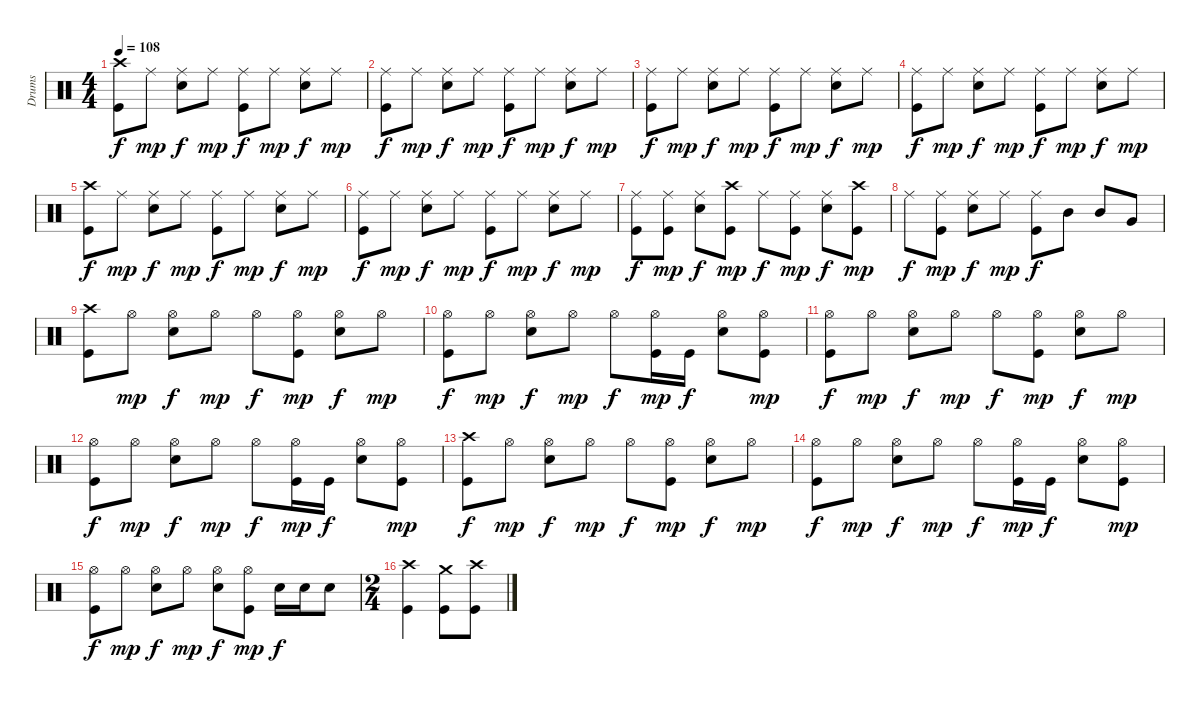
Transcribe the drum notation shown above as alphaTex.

\track ("Drums" "Drums") {instrument percussion}
\staff {score}
\articulation defaults
\ts (4 4)
\tempo 108
\clef neutral
\ks c
("Crash high (hit)" "Kick (hit)").8{dy f} "Ride (middle)".8{dy mp} ("Ride (middle)" "Snare (hit) 2").8{dy f} "Ride (middle)".8{dy mp} ("Ride (middle)" "Kick (hit)").8{dy f} "Ride (middle)".8{dy mp} ("Ride (middle)" "Snare (hit) 2").8{dy f} "Ride (middle)".8{dy mp} |
("Ride (middle)" "Kick (hit)").8{dy f} "Ride (middle)".8{dy mp} ("Ride (middle)" "Snare (hit) 2").8{dy f} "Ride (middle)".8{dy mp} ("Ride (middle)" "Kick (hit)").8{dy f} "Ride (middle)".8{dy mp} ("Ride (middle)" "Snare (hit) 2").8{dy f} "Ride (middle)".8{dy mp} |
("Ride (middle)" "Kick (hit)").8{dy f} "Ride (middle)".8{dy mp} ("Ride (middle)" "Snare (hit) 2").8{dy f} "Ride (middle)".8{dy mp} ("Ride (middle)" "Kick (hit)").8{dy f} "Ride (middle)".8{dy mp} ("Ride (middle)" "Snare (hit) 2").8{dy f} "Ride (middle)".8{dy mp} |
("Ride (middle)" "Kick (hit)").8{dy f} "Ride (middle)".8{dy mp} ("Ride (middle)" "Snare (hit) 2").8{dy f} "Ride (middle)".8{dy mp} ("Ride (middle)" "Kick (hit)").8{dy f} "Ride (middle)".8{dy mp} ("Ride (middle)" "Snare (hit) 2").8{dy f} "Ride (middle)".8{dy mp} |
("Crash high (hit)" "Kick (hit)").8{dy f} "Ride (middle)".8{dy mp} ("Ride (middle)" "Snare (hit) 2").8{dy f} "Ride (middle)".8{dy mp} ("Ride (middle)" "Kick (hit)").8{dy f} "Ride (middle)".8{dy mp} ("Ride (middle)" "Snare (hit) 2").8{dy f} "Ride (middle)".8{dy mp} |
("Ride (middle)" "Kick (hit)").8{dy f} "Ride (middle)".8{dy mp} ("Ride (middle)" "Snare (hit) 2").8{dy f} "Ride (middle)".8{dy mp} ("Ride (middle)" "Kick (hit)").8{dy f} "Ride (middle)".8{dy mp} ("Ride (middle)" "Snare (hit) 2").8{dy f} "Ride (middle)".8{dy mp} |
("Ride (middle)" "Kick (hit)").8{dy f} ("Ride (middle)" "Kick (hit)").8{dy mp} ("Ride (middle)" "Snare (hit) 2").8{dy f} ("Crash high (hit)" "Kick (hit)").8{dy mp} "Ride (middle)".8{dy f} ("Ride (middle)" "Kick (hit)").8{dy mp} ("Ride (middle)" "Snare (hit) 2").8{dy f} ("Crash high (hit)" "Kick (hit)").8{dy mp} |
"Ride (middle)".8{dy f} ("Ride (middle)" "Kick (hit)").8{dy mp} ("Ride (middle)" "Snare (hit) 2").8{dy f} "Ride (middle)".8{dy mp} ("Ride (middle)" "Kick (hit)").8{dy f} "Mid Tom (hit)".8 "Mid Tom (hit)".8 "Very Low Tom (hit)".8 |
("Crash high (hit)" "Kick (hit)").8 "Hi-Hat (open)".8{dy mp} ("Hi-Hat (open)" "Snare (hit) 2").8{dy f} "Hi-Hat (open)".8{dy mp} "Hi-Hat (open)".8{dy f} ("Hi-Hat (open)" "Kick (hit)").8{dy mp} ("Hi-Hat (open)" "Snare (hit) 2").8{dy f} "Hi-Hat (open)".8{dy mp} |
("Hi-Hat (open)" "Kick (hit)").8{dy f} "Hi-Hat (open)".8{dy mp} ("Hi-Hat (open)" "Snare (hit) 2").8{dy f} "Hi-Hat (open)".8{dy mp} "Hi-Hat (open)".8{dy f} ("Hi-Hat (open)" "Kick (hit)").16{dy mp} "Kick (hit)".16{dy f} ("Hi-Hat (open)" "Snare (hit) 2").8 ("Hi-Hat (open)" "Kick (hit)").8{dy mp} |
("Hi-Hat (open)" "Kick (hit)").8{dy f} "Hi-Hat (open)".8{dy mp} ("Hi-Hat (open)" "Snare (hit) 2").8{dy f} "Hi-Hat (open)".8{dy mp} "Hi-Hat (open)".8{dy f} ("Hi-Hat (open)" "Kick (hit)").8{dy mp} ("Hi-Hat (open)" "Snare (hit) 2").8{dy f} "Hi-Hat (open)".8{dy mp} |
("Hi-Hat (open)" "Kick (hit)").8{dy f} "Hi-Hat (open)".8{dy mp} ("Hi-Hat (open)" "Snare (hit) 2").8{dy f} "Hi-Hat (open)".8{dy mp} "Hi-Hat (open)".8{dy f} ("Hi-Hat (open)" "Kick (hit)").16{dy mp} "Kick (hit)".16{dy f} ("Hi-Hat (open)" "Snare (hit) 2").8 ("Hi-Hat (open)" "Kick (hit)").8{dy mp} |
("Crash high (hit)" "Kick (hit)").8{dy f} "Hi-Hat (open)".8{dy mp} ("Hi-Hat (open)" "Snare (hit) 2").8{dy f} "Hi-Hat (open)".8{dy mp} "Hi-Hat (open)".8{dy f} ("Hi-Hat (open)" "Kick (hit)").8{dy mp} ("Hi-Hat (open)" "Snare (hit) 2").8{dy f} "Hi-Hat (open)".8{dy mp} |
("Hi-Hat (open)" "Kick (hit)").8{dy f} "Hi-Hat (open)".8{dy mp} ("Hi-Hat (open)" "Snare (hit) 2").8{dy f} "Hi-Hat (open)".8{dy mp} "Hi-Hat (open)".8{dy f} ("Hi-Hat (open)" "Kick (hit)").16{dy mp} "Kick (hit)".16{dy f} ("Hi-Hat (open)" "Snare (hit) 2").8 ("Hi-Hat (open)" "Kick (hit)").8{dy mp} |
("Hi-Hat (open)" "Kick (hit)").8{dy f} "Hi-Hat (open)".8{dy mp} ("Hi-Hat (open)" "Snare (hit) 2").8{dy f} "Hi-Hat (open)".8{dy mp} ("Hi-Hat (open)" "Snare (hit) 2").8{dy f} ("Hi-Hat (open)" "Kick (hit)").8{dy mp} "Snare (hit) 2".16{dy f} "Snare (hit) 2".16 "Snare (hit) 2".8 |
\ts (2 4)
("Crash high (hit)" "Kick (hit)").4 ("Crash medium (hit)" "Kick (hit)").8 ("Crash high (hit)" "Kick (hit)").8
